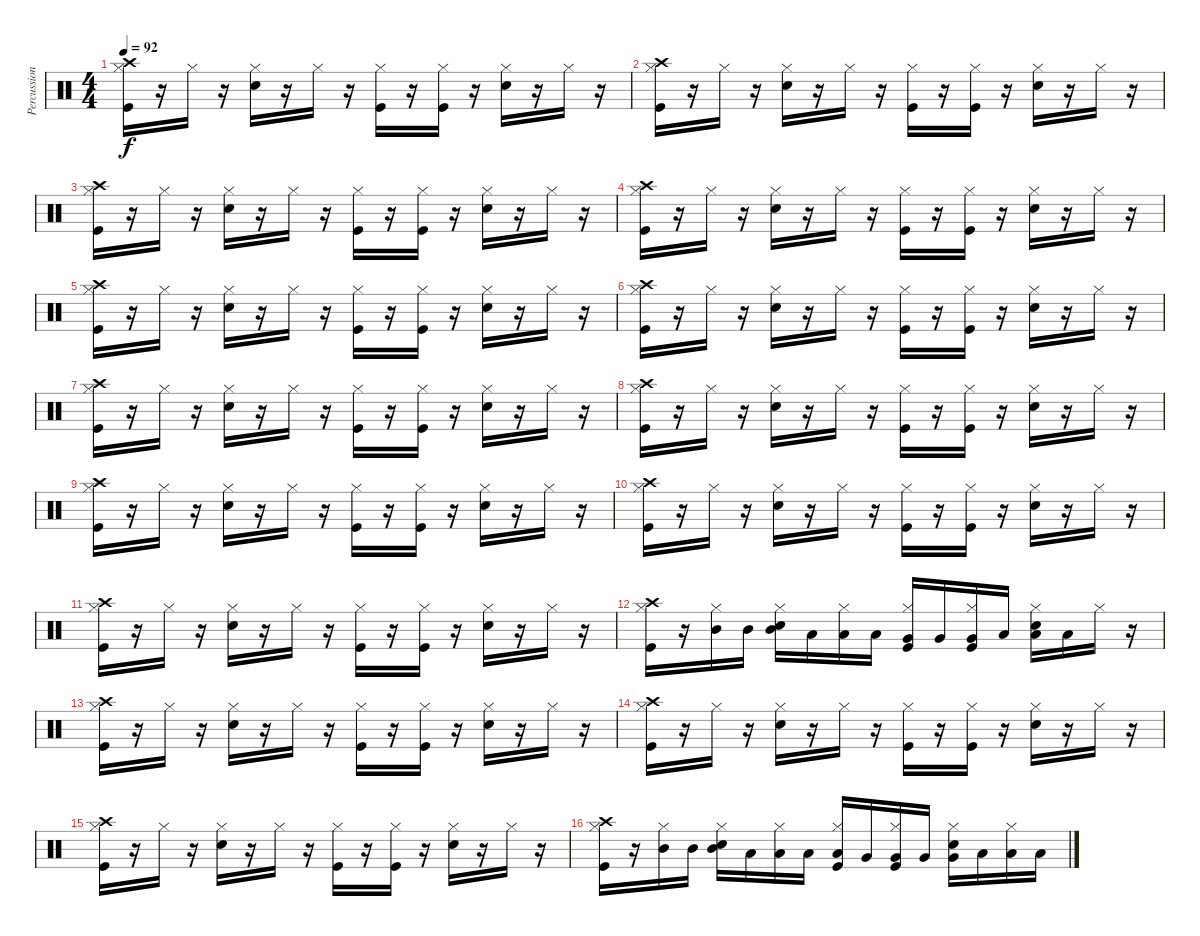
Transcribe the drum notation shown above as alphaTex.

\track ("Percussion" "Percussion") {instrument percussion}
\staff {score}
\articulation defaults
\ts (4 4)
\tempo 92
\clef neutral
\ks c
("Crash high (hit)" "Kick (hit)" "Hi-Hat (closed)").16{dy f} r.16 "Hi-Hat (closed)".16 r.16 ("Hi-Hat (closed)" "Snare (hit) 2").16 r.16 "Hi-Hat (closed)".16 r.16 ("Kick (hit)" "Hi-Hat (closed)").16 r.16 ("Kick (hit)" "Hi-Hat (closed)").16 r.16 ("Snare (hit) 2" "Hi-Hat (closed)").16 r.16 "Hi-Hat (closed)".16 r.16 |
("Crash high (hit)" "Kick (hit)" "Hi-Hat (closed)").16 r.16 "Hi-Hat (closed)".16 r.16 ("Hi-Hat (closed)" "Snare (hit) 2").16 r.16 "Hi-Hat (closed)".16 r.16 ("Kick (hit)" "Hi-Hat (closed)").16 r.16 ("Kick (hit)" "Hi-Hat (closed)").16 r.16 ("Snare (hit) 2" "Hi-Hat (closed)").16 r.16 "Hi-Hat (closed)".16 r.16 |
("Crash high (hit)" "Kick (hit)" "Hi-Hat (closed)").16 r.16 "Hi-Hat (closed)".16 r.16 ("Hi-Hat (closed)" "Snare (hit) 2").16 r.16 "Hi-Hat (closed)".16 r.16 ("Kick (hit)" "Hi-Hat (closed)").16 r.16 ("Kick (hit)" "Hi-Hat (closed)").16 r.16 ("Snare (hit) 2" "Hi-Hat (closed)").16 r.16 "Hi-Hat (closed)".16 r.16 |
("Crash high (hit)" "Kick (hit)" "Hi-Hat (closed)").16 r.16 "Hi-Hat (closed)".16 r.16 ("Hi-Hat (closed)" "Snare (hit) 2").16 r.16 "Hi-Hat (closed)".16 r.16 ("Kick (hit)" "Hi-Hat (closed)").16 r.16 ("Kick (hit)" "Hi-Hat (closed)").16 r.16 ("Snare (hit) 2" "Hi-Hat (closed)").16 r.16 "Hi-Hat (closed)".16 r.16 |
("Crash high (hit)" "Kick (hit)" "Hi-Hat (closed)").16 r.16 "Hi-Hat (closed)".16 r.16 ("Hi-Hat (closed)" "Snare (hit) 2").16 r.16 "Hi-Hat (closed)".16 r.16 ("Kick (hit)" "Hi-Hat (closed)").16 r.16 ("Kick (hit)" "Hi-Hat (closed)").16 r.16 ("Snare (hit) 2" "Hi-Hat (closed)").16 r.16 "Hi-Hat (closed)".16 r.16 |
("Crash high (hit)" "Kick (hit)" "Hi-Hat (closed)").16 r.16 "Hi-Hat (closed)".16 r.16 ("Hi-Hat (closed)" "Snare (hit) 2").16 r.16 "Hi-Hat (closed)".16 r.16 ("Kick (hit)" "Hi-Hat (closed)").16 r.16 ("Kick (hit)" "Hi-Hat (closed)").16 r.16 ("Snare (hit) 2" "Hi-Hat (closed)").16 r.16 "Hi-Hat (closed)".16 r.16 |
("Crash high (hit)" "Kick (hit)" "Hi-Hat (closed)").16 r.16 "Hi-Hat (closed)".16 r.16 ("Hi-Hat (closed)" "Snare (hit) 2").16 r.16 "Hi-Hat (closed)".16 r.16 ("Kick (hit)" "Hi-Hat (closed)").16 r.16 ("Kick (hit)" "Hi-Hat (closed)").16 r.16 ("Snare (hit) 2" "Hi-Hat (closed)").16 r.16 "Hi-Hat (closed)".16 r.16 |
("Crash high (hit)" "Kick (hit)" "Hi-Hat (closed)").16 r.16 "Hi-Hat (closed)".16 r.16 ("Hi-Hat (closed)" "Snare (hit) 2").16 r.16 "Hi-Hat (closed)".16 r.16 ("Kick (hit)" "Hi-Hat (closed)").16 r.16 ("Kick (hit)" "Hi-Hat (closed)").16 r.16 ("Snare (hit) 2" "Hi-Hat (closed)").16 r.16 "Hi-Hat (closed)".16 r.16 |
("Crash high (hit)" "Kick (hit)" "Hi-Hat (closed)").16 r.16 "Hi-Hat (closed)".16 r.16 ("Hi-Hat (closed)" "Snare (hit) 2").16 r.16 "Hi-Hat (closed)".16 r.16 ("Kick (hit)" "Hi-Hat (closed)").16 r.16 ("Kick (hit)" "Hi-Hat (closed)").16 r.16 ("Snare (hit) 2" "Hi-Hat (closed)").16 r.16 "Hi-Hat (closed)".16 r.16 |
("Crash high (hit)" "Kick (hit)" "Hi-Hat (closed)").16 r.16 "Hi-Hat (closed)".16 r.16 ("Hi-Hat (closed)" "Snare (hit) 2").16 r.16 "Hi-Hat (closed)".16 r.16 ("Kick (hit)" "Hi-Hat (closed)").16 r.16 ("Kick (hit)" "Hi-Hat (closed)").16 r.16 ("Snare (hit) 2" "Hi-Hat (closed)").16 r.16 "Hi-Hat (closed)".16 r.16 |
("Crash high (hit)" "Kick (hit)" "Hi-Hat (closed)").16 r.16 "Hi-Hat (closed)".16 r.16 ("Hi-Hat (closed)" "Snare (hit) 2").16 r.16 "Hi-Hat (closed)".16 r.16 ("Kick (hit)" "Hi-Hat (closed)").16 r.16 ("Kick (hit)" "Hi-Hat (closed)").16 r.16 ("Snare (hit) 2" "Hi-Hat (closed)").16 r.16 "Hi-Hat (closed)".16 r.16 |
("Crash high (hit)" "Kick (hit)" "Hi-Hat (closed)").16 r.16 ("Hi-Hat (closed)" "Mid Tom (hit)").16 "Mid Tom (hit)".16 ("Hi-Hat (closed)" "Snare (hit) 2" "Mid Tom (hit)").16 "Low Tom (hit)".16 ("Hi-Hat (closed)" "Low Tom (hit)").16 "Low Tom (hit)".16 ("Kick (hit)" "Hi-Hat (closed)" "Very Low Tom (hit)").16 "Very Low Tom (hit)".16 ("Kick (hit)" "Hi-Hat (closed)" "Very Low Tom (hit)").16 "Low Floor Tom (hit)".16 ("Snare (hit) 2" "Hi-Hat (closed)" "Low Floor Tom (hit)").16 "Low Floor Tom (hit)".16 "Hi-Hat (closed)".16 r.16 |
("Crash high (hit)" "Kick (hit)" "Hi-Hat (closed)").16 r.16 "Hi-Hat (closed)".16 r.16 ("Hi-Hat (closed)" "Snare (hit) 2").16 r.16 "Hi-Hat (closed)".16 r.16 ("Kick (hit)" "Hi-Hat (closed)").16 r.16 ("Kick (hit)" "Hi-Hat (closed)").16 r.16 ("Snare (hit) 2" "Hi-Hat (closed)").16 r.16 "Hi-Hat (closed)".16 r.16 |
("Crash high (hit)" "Kick (hit)" "Hi-Hat (closed)").16 r.16 "Hi-Hat (closed)".16 r.16 ("Hi-Hat (closed)" "Snare (hit) 2").16 r.16 "Hi-Hat (closed)".16 r.16 ("Kick (hit)" "Hi-Hat (closed)").16 r.16 ("Kick (hit)" "Hi-Hat (closed)").16 r.16 ("Snare (hit) 2" "Hi-Hat (closed)").16 r.16 "Hi-Hat (closed)".16 r.16 |
("Crash high (hit)" "Kick (hit)" "Hi-Hat (closed)").16 r.16 "Hi-Hat (closed)".16 r.16 ("Hi-Hat (closed)" "Snare (hit) 2").16 r.16 "Hi-Hat (closed)".16 r.16 ("Kick (hit)" "Hi-Hat (closed)").16 r.16 ("Kick (hit)" "Hi-Hat (closed)").16 r.16 ("Snare (hit) 2" "Hi-Hat (closed)").16 r.16 "Hi-Hat (closed)".16 r.16 |
("Crash high (hit)" "Kick (hit)" "Hi-Hat (closed)").16 r.16 ("Hi-Hat (closed)" "Mid Tom (hit)").16 "Mid Tom (hit)".16 ("Hi-Hat (closed)" "Snare (hit) 2" "Mid Tom (hit)").16 "Low Tom (hit)".16 ("Hi-Hat (closed)" "Low Tom (hit)").16 "Low Tom (hit)".16 ("Kick (hit)" "Hi-Hat (closed)" "Low Tom (hit)").16 "Very Low Tom (hit)".16 ("Kick (hit)" "Hi-Hat (closed)" "Very Low Tom (hit)").16 "Very Low Tom (hit)".16 ("Snare (hit) 2" "Hi-Hat (closed)" "Very Low Tom (hit)").16 "Low Floor Tom (hit)".16 ("Hi-Hat (closed)" "Low Floor Tom (hit)").16 "Low Floor Tom (hit)".16
